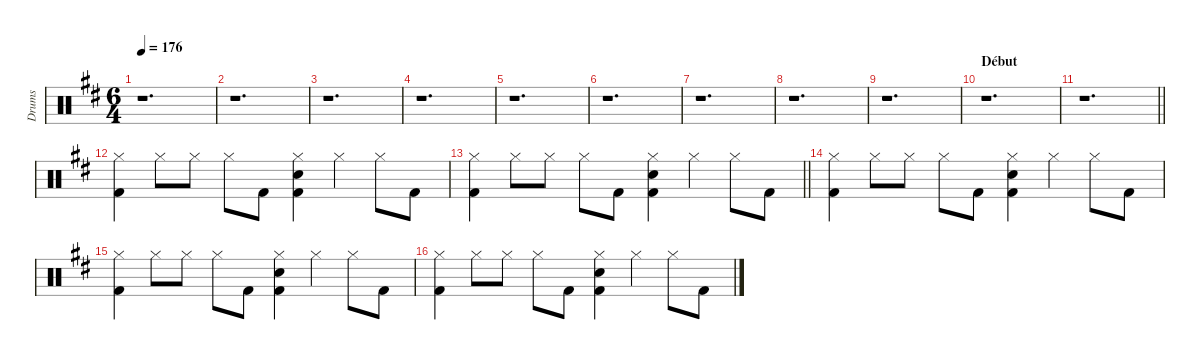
\hideDynamics
\bracketExtendMode groupsimilarinstruments
\otherSystemsTrackNameOrientation horizontal
\track ("Drumkit" "Drums") {defaultSystemsLayout 4 instrument percussion}
\staff {score}
\articulation defaults
\ts (6 4)
\tempo 176
\clef neutral
\ks bminor
r.1{d dy f beam Down} |
r.1{d beam Down} |
r.1{d beam Down} |
r.1{d beam Down} |
r.1{d beam Down} |
r.1{d beam Down} |
r.1{d beam Down} |
r.1{d beam Down} |
r.1{d beam Down} |
\section ("" "Début")
r.1{d beam Down} |
\barLineRight lightlight
r.1{d beam Down} |
("Hi-Hat (closed)"{acc forcenatural} "Kick (hit) 2"{acc forcenatural}).4{beam Down} "Hi-Hat (closed)"{acc forcenatural}.8{beam Down} "Hi-Hat (closed)"{acc forcenatural}.8{beam Down} "Hi-Hat (closed)"{acc forcenatural}.8{beam Down} "Kick (hit) 2"{acc forcenatural}.8{beam Down} ("Hi-Hat (closed)"{acc forcenatural} "Snare (hit) 2"{acc forcenatural} "Kick (hit) 2"{acc forcenatural}).4{beam Down} "Hi-Hat (closed)"{acc forcenatural}.4{beam Down} "Hi-Hat (closed)"{acc forcenatural}.8{beam Down} "Kick (hit) 2"{acc forcenatural}.8{beam Down} |
\barLineRight lightlight
("Hi-Hat (closed)"{acc forcenatural} "Kick (hit) 2"{acc forcenatural}).4{beam Down} "Hi-Hat (closed)"{acc forcenatural}.8{beam Down} "Hi-Hat (closed)"{acc forcenatural}.8{beam Down} "Hi-Hat (closed)"{acc forcenatural}.8{beam Down} "Kick (hit) 2"{acc forcenatural}.8{beam Down} ("Hi-Hat (closed)"{acc forcenatural} "Snare (hit) 2"{acc forcenatural} "Kick (hit) 2"{acc forcenatural}).4{beam Down} "Hi-Hat (closed)"{acc forcenatural}.4{beam Down} "Hi-Hat (closed)"{acc forcenatural}.8{beam Down} "Kick (hit) 2"{acc forcenatural}.8{beam Down} |
("Hi-Hat (closed)"{acc forcenatural} "Kick (hit) 2"{acc forcenatural}).4{beam Down} "Hi-Hat (closed)"{acc forcenatural}.8{beam Down} "Hi-Hat (closed)"{acc forcenatural}.8{beam Down} "Hi-Hat (closed)"{acc forcenatural}.8{beam Down} "Kick (hit) 2"{acc forcenatural}.8{beam Down} ("Hi-Hat (closed)"{acc forcenatural} "Snare (hit) 2"{acc forcenatural} "Kick (hit) 2"{acc forcenatural}).4{beam Down} "Hi-Hat (closed)"{acc forcenatural}.4{beam Down} "Hi-Hat (closed)"{acc forcenatural}.8{beam Down} "Kick (hit) 2"{acc forcenatural}.8{beam Down} |
("Hi-Hat (closed)"{acc forcenatural} "Kick (hit) 2"{acc forcenatural}).4{beam Down} "Hi-Hat (closed)"{acc forcenatural}.8{beam Down} "Hi-Hat (closed)"{acc forcenatural}.8{beam Down} "Hi-Hat (closed)"{acc forcenatural}.8{beam Down} "Kick (hit) 2"{acc forcenatural}.8{beam Down} ("Hi-Hat (closed)"{acc forcenatural} "Snare (hit) 2"{acc forcenatural} "Kick (hit) 2"{acc forcenatural}).4{beam Down} "Hi-Hat (closed)"{acc forcenatural}.4{beam Down} "Hi-Hat (closed)"{acc forcenatural}.8{beam Down} "Kick (hit) 2"{acc forcenatural}.8{beam Down} |
("Hi-Hat (closed)"{acc forcenatural} "Kick (hit) 2"{acc forcenatural}).4{beam Down} "Hi-Hat (closed)"{acc forcenatural}.8{beam Down} "Hi-Hat (closed)"{acc forcenatural}.8{beam Down} "Hi-Hat (closed)"{acc forcenatural}.8{beam Down} "Kick (hit) 2"{acc forcenatural}.8{beam Down} ("Hi-Hat (closed)"{acc forcenatural} "Snare (hit) 2"{acc forcenatural} "Kick (hit) 2"{acc forcenatural}).4{beam Down} "Hi-Hat (closed)"{acc forcenatural}.4{beam Down} "Hi-Hat (closed)"{acc forcenatural}.8{beam Down} "Kick (hit) 2"{acc forcenatural}.8{beam Down}
